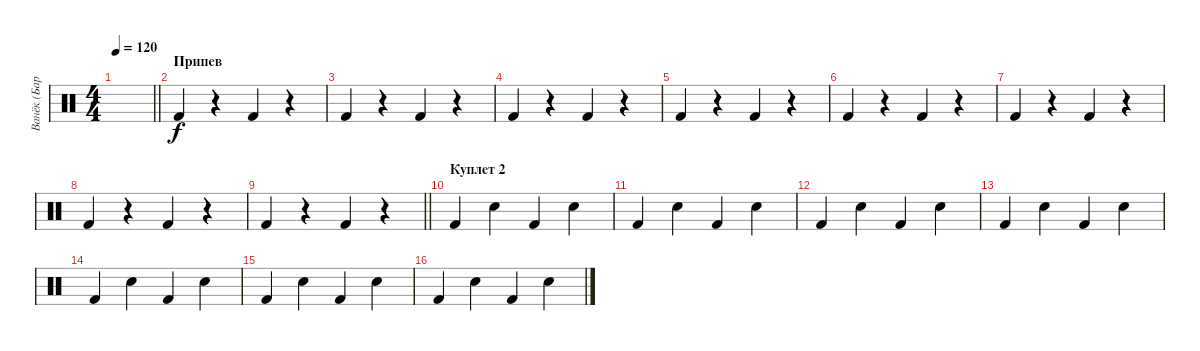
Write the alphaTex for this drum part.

\track ("Ванёк (Барабанщик)" "Ванёк (Бар") {instrument percussion}
\staff {score}
\articulation defaults
\ts (4 4)
\tempo 120
\clef neutral
\barLineRight lightlight
\ks c
|
\section ("" "Припев")
"Kick (hit) 2".4 r.4 "Kick (hit) 2".4 r.4 |
"Kick (hit) 2".4 r.4 "Kick (hit) 2".4 r.4 |
"Kick (hit) 2".4 r.4 "Kick (hit) 2".4 r.4 |
"Kick (hit) 2".4 r.4 "Kick (hit) 2".4 r.4 |
"Kick (hit) 2".4 r.4 "Kick (hit) 2".4 r.4 |
"Kick (hit) 2".4 r.4 "Kick (hit) 2".4 r.4 |
"Kick (hit) 2".4 r.4 "Kick (hit) 2".4 r.4 |
\barLineRight lightlight "Kick (hit) 2".4
r.4 "Kick (hit) 2".4 r.4 |
\section ("" "Куплет 2")
"Kick (hit) 2".4 "Electric Snare (hit)".4 "Kick (hit) 2".4 "Electric Snare (hit)".4 |
"Kick (hit) 2".4 "Electric Snare (hit)".4 "Kick (hit) 2".4 "Electric Snare (hit)".4 |
"Kick (hit) 2".4 "Electric Snare (hit)".4 "Kick (hit) 2".4 "Electric Snare (hit)".4 |
"Kick (hit) 2".4 "Electric Snare (hit)".4 "Kick (hit) 2".4 "Electric Snare (hit)".4 |
"Kick (hit) 2".4 "Electric Snare (hit)".4 "Kick (hit) 2".4 "Electric Snare (hit)".4 |
"Kick (hit) 2".4 "Electric Snare (hit)".4 "Kick (hit) 2".4 "Electric Snare (hit)".4 |
"Kick (hit) 2".4 "Electric Snare (hit)".4 "Kick (hit) 2".4 "Electric Snare (hit)".4
